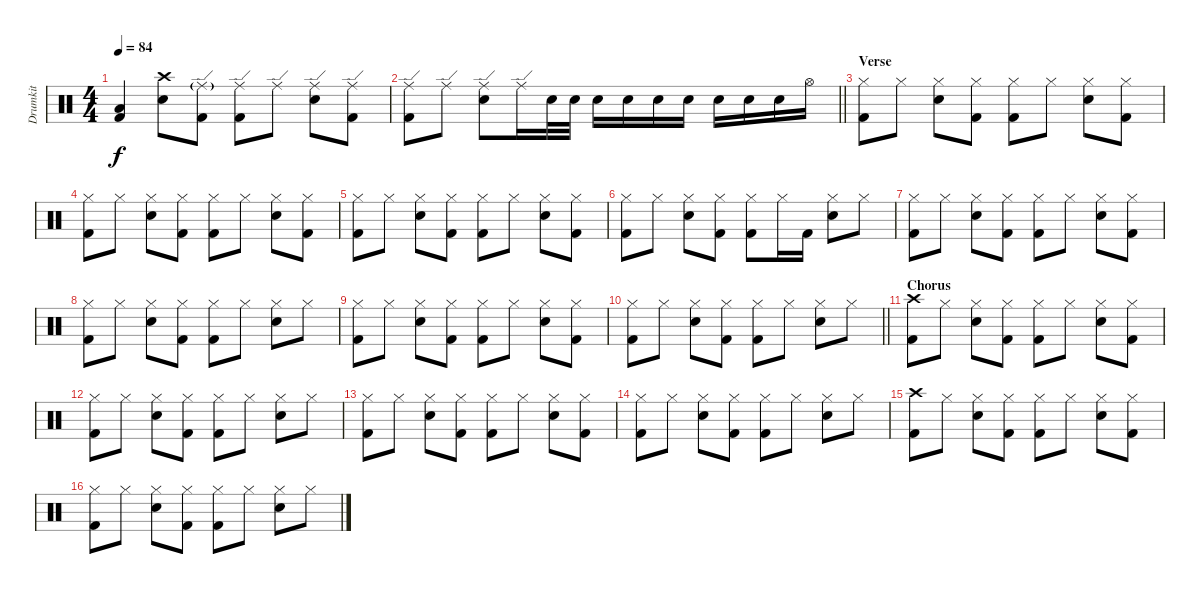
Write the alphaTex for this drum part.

\track ("Drumkit" "Drumkit") {instrument percussion}
\staff {score}
\articulation defaults
\ts (4 4)
\tempo 84
\clef neutral
\ks c
("Low Tom (hit)" "Kick (hit) 2").4{dy f} ("Crash high (hit)" "Snare (hit) 2").8 ("Kick (hit) 2" "Ride (edge)"{g}).8 ("Kick (hit) 2" "Ride (edge)").8 "Ride (edge)".8 ("Ride (edge)" "Snare (hit) 2").8 ("Ride (edge)" "Kick (hit) 2").8 |
\barLineRight lightlight
("Kick (hit) 2" "Ride (edge)").8 "Ride (edge)".8 ("Ride (edge)" "Snare (hit) 2").8 "Ride (edge)".16 "Snare (hit) 2".32 "Snare (hit) 2".32 "Snare (hit) 2".16 "Snare (hit) 2".16 "Snare (hit) 2".16 "Snare (hit) 2".16 "Snare (hit) 2".16 "Snare (hit) 2".16 "Snare (hit) 2".16 "Hi-Hat (open)".16 |
\section ("" "Verse")
("Kick (hit) 2" "Hi-Hat (closed)").8 "Hi-Hat (closed)".8 ("Hi-Hat (closed)" "Snare (hit) 2").8 ("Hi-Hat (closed)" "Kick (hit) 2").8 ("Kick (hit) 2" "Hi-Hat (closed)").8 "Hi-Hat (closed)".8 ("Hi-Hat (closed)" "Snare (hit) 2").8 ("Hi-Hat (closed)" "Kick (hit) 2").8 |
("Kick (hit) 2" "Hi-Hat (closed)").8 "Hi-Hat (closed)".8 ("Hi-Hat (closed)" "Snare (hit) 2").8 ("Hi-Hat (closed)" "Kick (hit) 2").8 ("Kick (hit) 2" "Hi-Hat (closed)").8 "Hi-Hat (closed)".8 ("Hi-Hat (closed)" "Snare (hit) 2").8 ("Hi-Hat (closed)" "Kick (hit) 2").8 |
("Kick (hit) 2" "Hi-Hat (closed)").8 "Hi-Hat (closed)".8 ("Hi-Hat (closed)" "Snare (hit) 2").8 ("Hi-Hat (closed)" "Kick (hit) 2").8 ("Kick (hit) 2" "Hi-Hat (closed)").8 "Hi-Hat (closed)".8 ("Hi-Hat (closed)" "Snare (hit) 2").8 ("Hi-Hat (closed)" "Kick (hit) 2").8 |
("Kick (hit) 2" "Hi-Hat (closed)").8 "Hi-Hat (closed)".8 ("Hi-Hat (closed)" "Snare (hit) 2").8 ("Hi-Hat (closed)" "Kick (hit) 2").8 ("Kick (hit) 2" "Hi-Hat (closed)").8 "Hi-Hat (closed)".16 "Kick (hit) 2".16 ("Hi-Hat (closed)" "Snare (hit) 2").8 "Hi-Hat (closed)".8 |
("Kick (hit) 2" "Hi-Hat (closed)").8 "Hi-Hat (closed)".8 ("Hi-Hat (closed)" "Snare (hit) 2").8 ("Hi-Hat (closed)" "Kick (hit) 2").8 ("Kick (hit) 2" "Hi-Hat (closed)").8 "Hi-Hat (closed)".8 ("Hi-Hat (closed)" "Snare (hit) 2").8 ("Hi-Hat (closed)" "Kick (hit) 2").8 |
("Kick (hit) 2" "Hi-Hat (closed)").8 "Hi-Hat (closed)".8 ("Hi-Hat (closed)" "Snare (hit) 2").8 ("Hi-Hat (closed)" "Kick (hit) 2").8 ("Kick (hit) 2" "Hi-Hat (closed)").8 "Hi-Hat (closed)".8 ("Hi-Hat (closed)" "Snare (hit) 2").8 "Hi-Hat (closed)".8 |
("Kick (hit) 2" "Hi-Hat (closed)").8 "Hi-Hat (closed)".8 ("Hi-Hat (closed)" "Snare (hit) 2").8 ("Hi-Hat (closed)" "Kick (hit) 2").8 ("Kick (hit) 2" "Hi-Hat (closed)").8 "Hi-Hat (closed)".8 ("Hi-Hat (closed)" "Snare (hit) 2").8 ("Hi-Hat (closed)" "Kick (hit) 2").8 |
\barLineRight lightlight
("Kick (hit) 2" "Hi-Hat (closed)").8 "Hi-Hat (closed)".8 ("Hi-Hat (closed)" "Snare (hit) 2").8 ("Hi-Hat (closed)" "Kick (hit) 2").8 ("Kick (hit) 2" "Hi-Hat (closed)").8 "Hi-Hat (closed)".8 ("Hi-Hat (closed)" "Snare (hit) 2").8 "Hi-Hat (closed)".8 |
\section ("" "Chorus")
("Kick (hit) 2" "Crash high (hit)").8 "Hi-Hat (closed)".8 ("Hi-Hat (closed)" "Snare (hit) 2").8 ("Hi-Hat (closed)" "Kick (hit) 2").8 ("Kick (hit) 2" "Hi-Hat (closed)").8 "Hi-Hat (closed)".8 ("Hi-Hat (closed)" "Snare (hit) 2").8 ("Hi-Hat (closed)" "Kick (hit) 2").8 |
("Kick (hit) 2" "Hi-Hat (closed)").8 "Hi-Hat (closed)".8 ("Hi-Hat (closed)" "Snare (hit) 2").8 ("Hi-Hat (closed)" "Kick (hit) 2").8 ("Kick (hit) 2" "Hi-Hat (closed)").8 "Hi-Hat (closed)".8 ("Hi-Hat (closed)" "Snare (hit) 2").8 "Hi-Hat (closed)".8 |
("Kick (hit) 2" "Hi-Hat (closed)").8 "Hi-Hat (closed)".8 ("Hi-Hat (closed)" "Snare (hit) 2").8 ("Hi-Hat (closed)" "Kick (hit) 2").8 ("Kick (hit) 2" "Hi-Hat (closed)").8 "Hi-Hat (closed)".8 ("Hi-Hat (closed)" "Snare (hit) 2").8 ("Hi-Hat (closed)" "Kick (hit) 2").8 |
("Kick (hit) 2" "Hi-Hat (closed)").8 "Hi-Hat (closed)".8 ("Hi-Hat (closed)" "Snare (hit) 2").8 ("Hi-Hat (closed)" "Kick (hit) 2").8 ("Kick (hit) 2" "Hi-Hat (closed)").8 "Hi-Hat (closed)".8 ("Hi-Hat (closed)" "Snare (hit) 2").8 "Hi-Hat (closed)".8 |
("Kick (hit) 2" "Crash high (hit)").8 "Hi-Hat (closed)".8 ("Hi-Hat (closed)" "Snare (hit) 2").8 ("Hi-Hat (closed)" "Kick (hit) 2").8 ("Kick (hit) 2" "Hi-Hat (closed)").8 "Hi-Hat (closed)".8 ("Hi-Hat (closed)" "Snare (hit) 2").8 ("Hi-Hat (closed)" "Kick (hit) 2").8 |
("Kick (hit) 2" "Hi-Hat (closed)").8 "Hi-Hat (closed)".8 ("Hi-Hat (closed)" "Snare (hit) 2").8 ("Hi-Hat (closed)" "Kick (hit) 2").8 ("Kick (hit) 2" "Hi-Hat (closed)").8 "Hi-Hat (closed)".8 ("Hi-Hat (closed)" "Snare (hit) 2").8 "Hi-Hat (closed)".8
